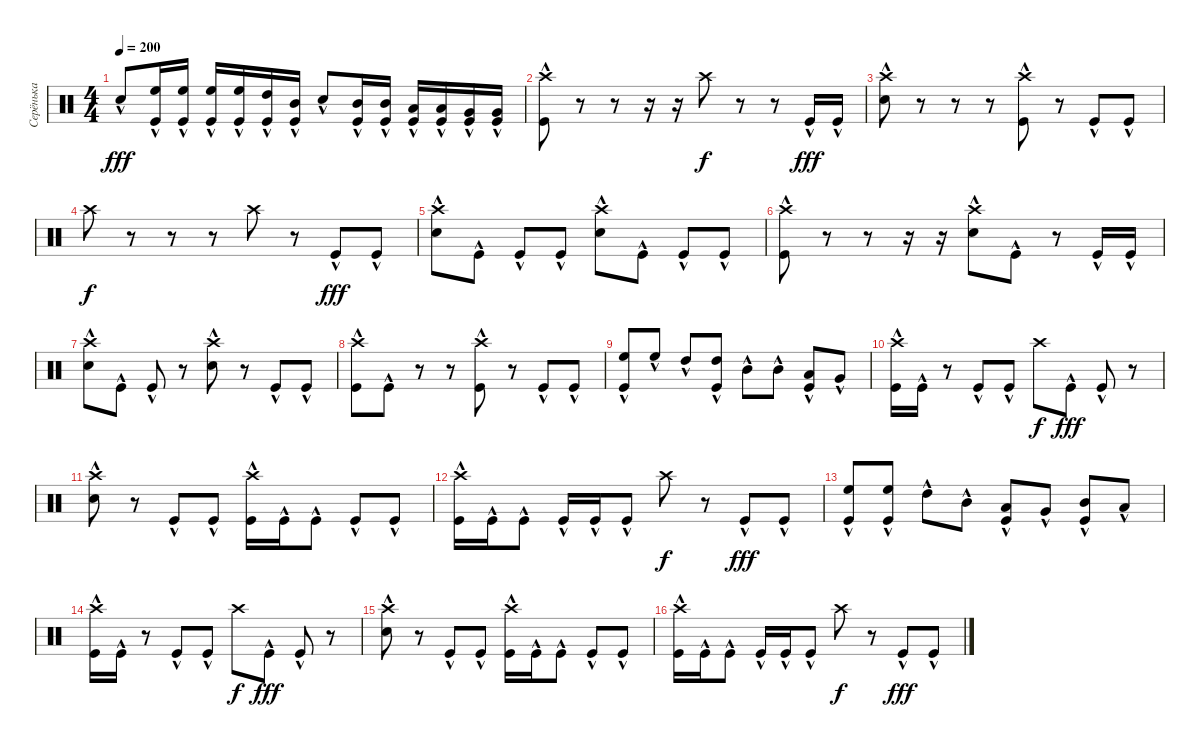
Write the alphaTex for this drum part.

\track ("Серёнька" "Серёнька") {instrument percussion}
\staff {score}
\articulation defaults
\ts (4 4)
\tempo 200
\clef neutral
\ks c "Snare (hit) 2"{hac}.8{dy fff}
("High Floor Tom (hit)" "Kick (hit)"{hac}).16 ("High Floor Tom (hit)" "Kick (hit)"{hac}).16 ("High Floor Tom (hit)" "Kick (hit)"{hac}).16 ("High Floor Tom (hit)" "Kick (hit)"{hac}).16 ("High Tom (hit)" "Kick (hit)"{hac}).16 ("Mid Tom (hit)" "Kick (hit)"{hac}).16 "Snare (hit) 2"{hac}.8 ("Mid Tom (hit)"{hac} "Kick (hit)"{hac}).16 ("Mid Tom (hit)"{hac} "Kick (hit)"{hac}).16 ("Low Tom (hit)"{hac} "Kick (hit)"{hac}).16 ("Low Tom (hit)"{hac} "Kick (hit)"{hac}).16 ("Very Low Tom (hit)"{hac} "Kick (hit)"{hac}).16 ("Very Low Tom (hit)"{hac} "Kick (hit)"{hac}).16 |
("Crash high (hit)"{hac} "Kick (hit)"{hac}).8 r.8 r.8 r.16 r.16 "Crash high (hit)".8{dy f} r.8 r.8 "Kick (hit)"{hac}.16{dy fff} "Kick (hit)"{hac}.16 |
("Crash high (hit)" "Snare (hit) 2"{hac}).8 r.8 r.8 r.8 ("Crash high (hit)" "Kick (hit)"{hac}).8 r.8 "Kick (hit)"{hac}.8 "Kick (hit)"{hac}.8 |
"Crash high (hit)".8{dy f} r.8 r.8 r.8 "Crash high (hit)".8 r.8 "Kick (hit)"{hac}.8{dy fff} "Kick (hit)"{hac}.8 |
("Crash high (hit)" "Snare (hit) 2"{hac}).8 "Kick (hit)"{hac}.8 "Kick (hit)"{hac}.8 "Kick (hit)"{hac}.8 ("Crash high (hit)" "Snare (hit) 2"{hac}).8 "Kick (hit)"{hac}.8 "Kick (hit)"{hac}.8 "Kick (hit)"{hac}.8 |
("Crash high (hit)"{hac} "Kick (hit)"{hac}).8 r.8 r.8 r.16 r.16 ("Crash high (hit)" "Snare (hit) 2"{hac}).8 "Kick (hit)"{hac}.8 r.8 "Kick (hit)"{hac}.16 "Kick (hit)"{hac}.16 |
("Crash high (hit)" "Snare (hit) 2"{hac}).8 "Kick (hit)"{hac}.8 "Kick (hit)"{hac}.8 r.8 ("Crash high (hit)" "Snare (hit) 2"{hac}).8 r.8 "Kick (hit)"{hac}.8 "Kick (hit)"{hac}.8 |
("Crash high (hit)" "Kick (hit)"{hac}).8 "Kick (hit)"{hac}.8 r.8 r.8 ("Crash high (hit)" "Kick (hit)"{hac}).8 r.8 "Kick (hit)"{hac}.8 "Kick (hit)"{hac}.8 |
("High Floor Tom (hit)"{hac} "Kick (hit)"{hac}).8 "High Floor Tom (hit)"{hac}.8 "High Tom (hit)"{hac}.8 ("High Tom (hit)"{hac} "Kick (hit)"{hac}).8 "Mid Tom (hit)"{hac}.8 "Mid Tom (hit)"{hac}.8 ("Low Tom (hit)"{hac} "Kick (hit)"{hac}).8 "Very Low Tom (hit)"{hac}.8 |
("Crash high (hit)" "Kick (hit)"{hac}).16 "Kick (hit)"{hac}.16 r.8 "Kick (hit)"{hac}.8 "Kick (hit)"{hac}.8 "Crash high (hit)".8{dy f} "Kick (hit)"{hac}.8{dy fff} "Kick (hit)"{hac}.8 r.8 |
("Crash high (hit)" "Snare (hit) 2"{hac}).8 r.8 "Kick (hit)"{hac}.8 "Kick (hit)"{hac}.8 ("Crash high (hit)" "Kick (hit)"{hac}).16 "Kick (hit)"{hac}.16 "Kick (hit)"{hac}.8 "Kick (hit)"{hac}.8 "Kick (hit)"{hac}.8 |
("Crash high (hit)" "Kick (hit)"{hac}).16 "Kick (hit)"{hac}.16 "Kick (hit)"{hac}.8 "Kick (hit)"{hac}.16 "Kick (hit)"{hac}.16 "Kick (hit)"{hac}.8 "Crash high (hit)".8{dy f} r.8 "Kick (hit)"{hac}.8{dy fff} "Kick (hit)"{hac}.8 |
("High Floor Tom (hit)"{hac} "Kick (hit)"{hac}).8 ("High Floor Tom (hit)"{hac} "Kick (hit)"{hac}).8 "High Tom (hit)"{hac}.8 "Mid Tom (hit)"{hac}.8 ("Low Tom (hit)"{hac} "Kick (hit)"{hac}).8 "Very Low Tom (hit)"{hac}.8 ("Mid Tom (hit)"{hac} "Kick (hit)"{hac}).8 "Low Tom (hit)"{hac}.8 |
("Crash high (hit)" "Kick (hit)"{hac}).16 "Kick (hit)"{hac}.16 r.8 "Kick (hit)"{hac}.8 "Kick (hit)"{hac}.8 "Crash high (hit)".8{dy f} "Kick (hit)"{hac}.8{dy fff} "Kick (hit)"{hac}.8 r.8 |
("Crash high (hit)" "Snare (hit) 2"{hac}).8 r.8 "Kick (hit)"{hac}.8 "Kick (hit)"{hac}.8 ("Crash high (hit)" "Kick (hit)"{hac}).16 "Kick (hit)"{hac}.16 "Kick (hit)"{hac}.8 "Kick (hit)"{hac}.8 "Kick (hit)"{hac}.8 |
("Crash high (hit)" "Kick (hit)"{hac}).16 "Kick (hit)"{hac}.16 "Kick (hit)"{hac}.8 "Kick (hit)"{hac}.16 "Kick (hit)"{hac}.16 "Kick (hit)"{hac}.8 "Crash high (hit)".8{dy f} r.8 "Kick (hit)"{hac}.8{dy fff} "Kick (hit)"{hac}.8
